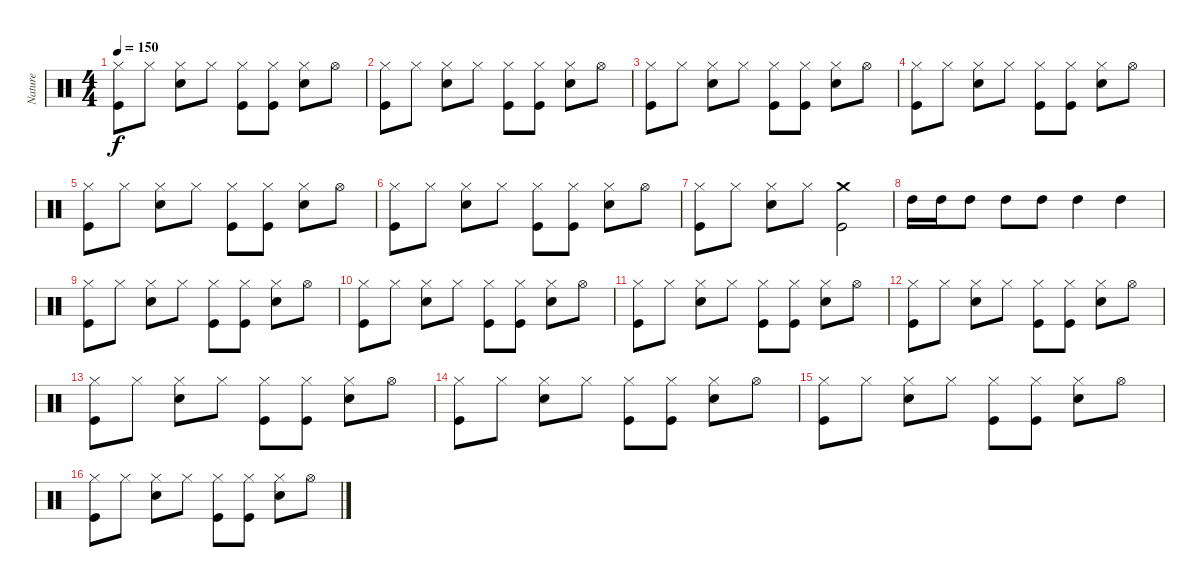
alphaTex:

\track ("Nature" "Nature") {instrument percussion}
\staff {score}
\articulation defaults
\ts (4 4)
\tempo 150
\clef neutral
\ks c
("Hi-Hat (closed)" "Kick (hit)").8{dy f} "Hi-Hat (closed)".8 ("Hi-Hat (closed)" "Electric Snare (hit)").8 "Hi-Hat (closed)".8 ("Hi-Hat (closed)" "Kick (hit)").8 ("Hi-Hat (closed)" "Kick (hit)").8 ("Hi-Hat (closed)" "Electric Snare (hit)").8 "Hi-Hat (open)".8 |
("Hi-Hat (closed)" "Kick (hit)").8 "Hi-Hat (closed)".8 ("Hi-Hat (closed)" "Electric Snare (hit)").8 "Hi-Hat (closed)".8 ("Hi-Hat (closed)" "Kick (hit)").8 ("Hi-Hat (closed)" "Kick (hit)").8 ("Hi-Hat (closed)" "Electric Snare (hit)").8 "Hi-Hat (open)".8 |
("Hi-Hat (closed)" "Kick (hit)").8 "Hi-Hat (closed)".8 ("Hi-Hat (closed)" "Electric Snare (hit)").8 "Hi-Hat (closed)".8 ("Hi-Hat (closed)" "Kick (hit)").8 ("Hi-Hat (closed)" "Kick (hit)").8 ("Hi-Hat (closed)" "Electric Snare (hit)").8 "Hi-Hat (open)".8 |
("Hi-Hat (closed)" "Kick (hit)").8 "Hi-Hat (closed)".8 ("Hi-Hat (closed)" "Electric Snare (hit)").8 "Hi-Hat (closed)".8 ("Hi-Hat (closed)" "Kick (hit)").8 ("Hi-Hat (closed)" "Kick (hit)").8 ("Hi-Hat (closed)" "Electric Snare (hit)").8 "Hi-Hat (open)".8 |
("Hi-Hat (closed)" "Kick (hit)").8 "Hi-Hat (closed)".8 ("Hi-Hat (closed)" "Electric Snare (hit)").8 "Hi-Hat (closed)".8 ("Hi-Hat (closed)" "Kick (hit)").8 ("Hi-Hat (closed)" "Kick (hit)").8 ("Hi-Hat (closed)" "Electric Snare (hit)").8 "Hi-Hat (open)".8 |
("Hi-Hat (closed)" "Kick (hit)").8 "Hi-Hat (closed)".8 ("Hi-Hat (closed)" "Electric Snare (hit)").8 "Hi-Hat (closed)".8 ("Hi-Hat (closed)" "Kick (hit)").8 ("Hi-Hat (closed)" "Kick (hit)").8 ("Hi-Hat (closed)" "Electric Snare (hit)").8 "Hi-Hat (open)".8 |
("Hi-Hat (closed)" "Kick (hit)").8 "Hi-Hat (closed)".8 ("Hi-Hat (closed)" "Electric Snare (hit)").8 "Hi-Hat (closed)".8 ("Crash medium (hit)" "Kick (hit)").2 |
"High Tom (hit)".16 "High Tom (hit)".16 "High Tom (hit)".8 "High Tom (hit)".8 "High Tom (hit)".8 "High Tom (hit)".4 "High Tom (hit)".4 |
("Hi-Hat (closed)" "Kick (hit)").8 "Hi-Hat (closed)".8 ("Hi-Hat (closed)" "Electric Snare (hit)").8 "Hi-Hat (closed)".8 ("Hi-Hat (closed)" "Kick (hit)").8 ("Hi-Hat (closed)" "Kick (hit)").8 ("Hi-Hat (closed)" "Electric Snare (hit)").8 "Hi-Hat (open)".8 |
("Hi-Hat (closed)" "Kick (hit)").8 "Hi-Hat (closed)".8 ("Hi-Hat (closed)" "Electric Snare (hit)").8 "Hi-Hat (closed)".8 ("Hi-Hat (closed)" "Kick (hit)").8 ("Hi-Hat (closed)" "Kick (hit)").8 ("Hi-Hat (closed)" "Electric Snare (hit)").8 "Hi-Hat (open)".8 |
("Hi-Hat (closed)" "Kick (hit)").8 "Hi-Hat (closed)".8 ("Hi-Hat (closed)" "Electric Snare (hit)").8 "Hi-Hat (closed)".8 ("Hi-Hat (closed)" "Kick (hit)").8 ("Hi-Hat (closed)" "Kick (hit)").8 ("Hi-Hat (closed)" "Electric Snare (hit)").8 "Hi-Hat (open)".8 |
("Hi-Hat (closed)" "Kick (hit)").8 "Hi-Hat (closed)".8 ("Hi-Hat (closed)" "Electric Snare (hit)").8 "Hi-Hat (closed)".8 ("Hi-Hat (closed)" "Kick (hit)").8 ("Hi-Hat (closed)" "Kick (hit)").8 ("Hi-Hat (closed)" "Electric Snare (hit)").8 "Hi-Hat (open)".8 |
("Hi-Hat (closed)" "Kick (hit)").8 "Hi-Hat (closed)".8 ("Hi-Hat (closed)" "Electric Snare (hit)").8 "Hi-Hat (closed)".8 ("Hi-Hat (closed)" "Kick (hit)").8 ("Hi-Hat (closed)" "Kick (hit)").8 ("Hi-Hat (closed)" "Electric Snare (hit)").8 "Hi-Hat (open)".8 |
("Hi-Hat (closed)" "Kick (hit)").8 "Hi-Hat (closed)".8 ("Hi-Hat (closed)" "Electric Snare (hit)").8 "Hi-Hat (closed)".8 ("Hi-Hat (closed)" "Kick (hit)").8 ("Hi-Hat (closed)" "Kick (hit)").8 ("Hi-Hat (closed)" "Electric Snare (hit)").8 "Hi-Hat (open)".8 |
("Hi-Hat (closed)" "Kick (hit)").8 "Hi-Hat (closed)".8 ("Hi-Hat (closed)" "Electric Snare (hit)").8 "Hi-Hat (closed)".8 ("Hi-Hat (closed)" "Kick (hit)").8 ("Hi-Hat (closed)" "Kick (hit)").8 ("Hi-Hat (closed)" "Electric Snare (hit)").8 "Hi-Hat (open)".8 |
("Hi-Hat (closed)" "Kick (hit)").8 "Hi-Hat (closed)".8 ("Hi-Hat (closed)" "Electric Snare (hit)").8 "Hi-Hat (closed)".8 ("Hi-Hat (closed)" "Kick (hit)").8 ("Hi-Hat (closed)" "Kick (hit)").8 ("Hi-Hat (closed)" "Electric Snare (hit)").8 "Hi-Hat (open)".8
